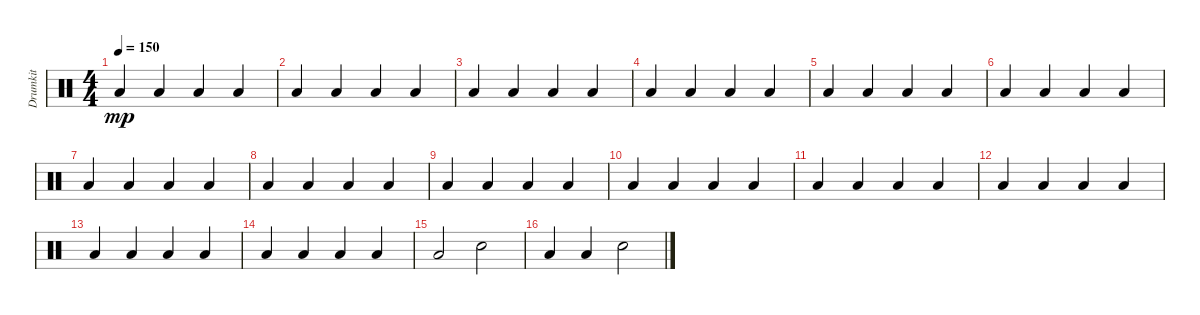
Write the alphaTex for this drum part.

\track ("Drumkit" "Drumkit") {instrument percussion}
\staff {score}
\articulation defaults
\ts (4 4)
\tempo 150
\clef neutral
\ks c "Low Floor Tom (hit)".4{dy mp} "Low Floor Tom (hit)".4 "Low Floor Tom (hit)".4 "Low Floor Tom (hit)".4
|
"Low Floor Tom (hit)".4 "Low Floor Tom (hit)".4 "Low Floor Tom (hit)".4 "Low Floor Tom (hit)".4 |
"Low Floor Tom (hit)".4 "Low Floor Tom (hit)".4 "Low Floor Tom (hit)".4 "Low Floor Tom (hit)".4 |
"Low Floor Tom (hit)".4 "Low Floor Tom (hit)".4 "Low Floor Tom (hit)".4 "Low Floor Tom (hit)".4 |
"Low Floor Tom (hit)".4 "Low Floor Tom (hit)".4 "Low Floor Tom (hit)".4 "Low Floor Tom (hit)".4 |
"Low Floor Tom (hit)".4 "Low Floor Tom (hit)".4 "Low Floor Tom (hit)".4 "Low Floor Tom (hit)".4 |
"Low Floor Tom (hit)".4 "Low Floor Tom (hit)".4 "Low Floor Tom (hit)".4 "Low Floor Tom (hit)".4 |
"Low Floor Tom (hit)".4 "Low Floor Tom (hit)".4 "Low Floor Tom (hit)".4 "Low Floor Tom (hit)".4 |
"Low Floor Tom (hit)".4 "Low Floor Tom (hit)".4 "Low Floor Tom (hit)".4 "Low Floor Tom (hit)".4 |
"Low Floor Tom (hit)".4 "Low Floor Tom (hit)".4 "Low Floor Tom (hit)".4 "Low Floor Tom (hit)".4 |
"Low Floor Tom (hit)".4 "Low Floor Tom (hit)".4 "Low Floor Tom (hit)".4 "Low Floor Tom (hit)".4 |
"Low Floor Tom (hit)".4 "Low Floor Tom (hit)".4 "Low Floor Tom (hit)".4 "Low Floor Tom (hit)".4 |
"Low Floor Tom (hit)".4 "Low Floor Tom (hit)".4 "Low Floor Tom (hit)".4 "Low Floor Tom (hit)".4 |
"Low Floor Tom (hit)".4 "Low Floor Tom (hit)".4 "Low Floor Tom (hit)".4 "Low Floor Tom (hit)".4 |
"Low Floor Tom (hit)".2 "Snare (hit) 2".2 |
"Low Floor Tom (hit)".4 "Low Floor Tom (hit)".4 "Snare (hit) 2".2
